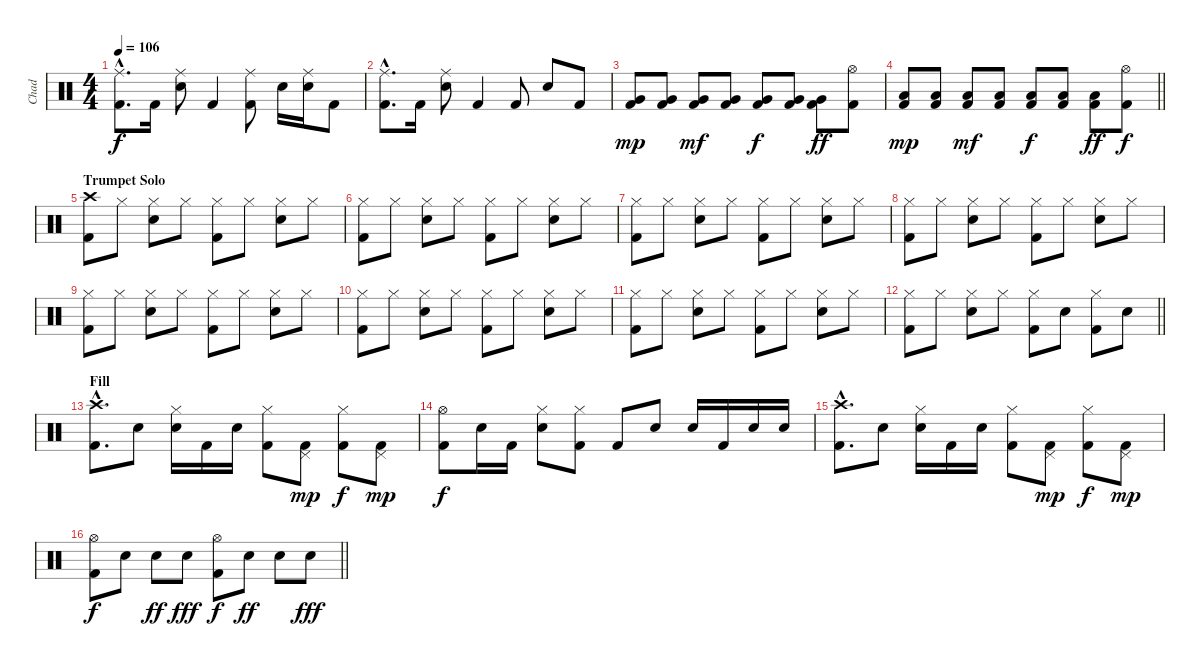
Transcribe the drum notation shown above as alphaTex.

\track ("Chad" "Chad") {instrument percussion}
\staff {score}
\articulation defaults
\ts (4 4)
\tempo 106
\clef neutral
\ks c
("Ride (middle)"{hac} "Kick (hit) 2"{hac}).8{d dy f} "Kick (hit) 2".16 ("Electric Snare (hit)" "Ride (middle)").8 "Kick (hit) 2".4 ("Ride (middle)" "Kick (hit) 2").8 "Electric Snare (hit)".16 ("Electric Snare (hit)" "Ride (middle)").16 "Kick (hit) 2".8 |
("Ride (middle)"{hac} "Kick (hit) 2"{hac}).8{d} "Kick (hit) 2".16 ("Electric Snare (hit)" "Ride (middle)").8 "Kick (hit) 2".4 "Kick (hit) 2".8 "Electric Snare (hit)".8 "Kick (hit) 2".8 |
("Very Low Tom (hit)" "Kick (hit) 2").8{dy mp} ("Very Low Tom (hit)" "Kick (hit) 2").8 ("Very Low Tom (hit)" "Kick (hit) 2").8{dy mf} ("Very Low Tom (hit)" "Kick (hit) 2").8 ("Very Low Tom (hit)" "Kick (hit) 2").8{dy f} ("Very Low Tom (hit)" "Kick (hit) 2").8 ("Very Low Tom (hit)" "Kick (hit) 2").8{dy ff} ("Hi-Hat (open)" "Kick (hit) 2").8 |
\barLineRight lightlight
("Low Tom (hit)" "Kick (hit) 2").8{dy mp} ("Low Tom (hit)" "Kick (hit) 2").8 ("Low Tom (hit)" "Kick (hit) 2").8{dy mf} ("Low Tom (hit)" "Kick (hit) 2").8 ("Low Tom (hit)" "Kick (hit) 2").8{dy f} ("Low Tom (hit)" "Kick (hit) 2").8 ("Low Tom (hit)" "Kick (hit) 2").8{dy ff} ("Hi-Hat (open)" "Kick (hit) 2").8{dy f} |
\section ("" "Trumpet Solo")
("Crash high (hit)" "Kick (hit) 2").8 "Hi-Hat (closed)".8 ("Snare (hit) 2" "Hi-Hat (closed)").8 "Hi-Hat (closed)".8 ("Hi-Hat (closed)" "Kick (hit) 2").8 "Hi-Hat (closed)".8 ("Snare (hit) 2" "Hi-Hat (closed)").8 "Hi-Hat (closed)".8 |
("Hi-Hat (closed)" "Kick (hit) 2").8 "Hi-Hat (closed)".8 ("Snare (hit) 2" "Hi-Hat (closed)").8 "Hi-Hat (closed)".8 ("Hi-Hat (closed)" "Kick (hit) 2").8 "Hi-Hat (closed)".8 ("Snare (hit) 2" "Hi-Hat (closed)").8 "Hi-Hat (closed)".8 |
("Hi-Hat (closed)" "Kick (hit) 2").8 "Hi-Hat (closed)".8 ("Snare (hit) 2" "Hi-Hat (closed)").8 "Hi-Hat (closed)".8 ("Hi-Hat (closed)" "Kick (hit) 2").8 "Hi-Hat (closed)".8 ("Snare (hit) 2" "Hi-Hat (closed)").8 "Hi-Hat (closed)".8 |
("Hi-Hat (closed)" "Kick (hit) 2").8 "Hi-Hat (closed)".8 ("Snare (hit) 2" "Hi-Hat (closed)").8 "Hi-Hat (closed)".8 ("Hi-Hat (closed)" "Kick (hit) 2").8 "Hi-Hat (closed)".8 ("Snare (hit) 2" "Hi-Hat (closed)").8 "Hi-Hat (closed)".8 |
("Hi-Hat (closed)" "Kick (hit) 2").8 "Hi-Hat (closed)".8 ("Snare (hit) 2" "Hi-Hat (closed)").8 "Hi-Hat (closed)".8 ("Hi-Hat (closed)" "Kick (hit) 2").8 "Hi-Hat (closed)".8 ("Snare (hit) 2" "Hi-Hat (closed)").8 "Hi-Hat (closed)".8 |
("Hi-Hat (closed)" "Kick (hit) 2").8 "Hi-Hat (closed)".8 ("Snare (hit) 2" "Hi-Hat (closed)").8 "Hi-Hat (closed)".8 ("Hi-Hat (closed)" "Kick (hit) 2").8 "Hi-Hat (closed)".8 ("Snare (hit) 2" "Hi-Hat (closed)").8 "Hi-Hat (closed)".8 |
("Hi-Hat (closed)" "Kick (hit) 2").8 "Hi-Hat (closed)".8 ("Snare (hit) 2" "Hi-Hat (closed)").8 "Hi-Hat (closed)".8 ("Hi-Hat (closed)" "Kick (hit) 2").8 "Hi-Hat (closed)".8 ("Snare (hit) 2" "Hi-Hat (closed)").8 "Hi-Hat (closed)".8 |
\barLineRight lightlight
("Hi-Hat (closed)" "Kick (hit) 2").8 "Hi-Hat (closed)".8 ("Snare (hit) 2" "Hi-Hat (closed)").8 "Hi-Hat (closed)".8 ("Hi-Hat (closed)" "Kick (hit) 2").8 "Electric Snare (hit)".8 ("Hi-Hat (closed)" "Kick (hit) 2").8 "Electric Snare (hit)".8 |
\section ("" "Fill")
("Crash high (hit)"{hac} "Kick (hit) 2"{hac}).8{d} "Electric Snare (hit)".8 ("Hi-Hat (closed)" "Electric Snare (hit)").16 "Kick (hit) 2".16 "Electric Snare (hit)".16 ("Hi-Hat (closed)" "Kick (hit) 2").8 ("Pedal Hi-Hat (hit)" "Kick (hit) 2").8{dy mp} ("Hi-Hat (closed)" "Kick (hit) 2").8{dy f} ("Pedal Hi-Hat (hit)" "Kick (hit) 2").8{dy mp} |
("Hi-Hat (open)" "Kick (hit) 2").8{dy f} "Electric Snare (hit)".16 "Kick (hit) 2".16 ("Hi-Hat (closed)" "Electric Snare (hit)").8 ("Hi-Hat (closed)" "Kick (hit) 2").8 "Kick (hit) 2".8 "Electric Snare (hit)".8 "Electric Snare (hit)".16 "Kick (hit) 2".16 "Electric Snare (hit)".16 "Electric Snare (hit)".16 |
("Crash high (hit)"{hac} "Kick (hit) 2"{hac}).8{d} "Electric Snare (hit)".8 ("Hi-Hat (closed)" "Electric Snare (hit)").16 "Kick (hit) 2".16 "Electric Snare (hit)".16 ("Hi-Hat (closed)" "Kick (hit) 2").8 ("Pedal Hi-Hat (hit)" "Kick (hit) 2").8{dy mp} ("Hi-Hat (closed)" "Kick (hit) 2").8{dy f} ("Pedal Hi-Hat (hit)" "Kick (hit) 2").8{dy mp} |
\barLineRight lightlight
("Hi-Hat (open)" "Kick (hit) 2").8{dy f} "Electric Snare (hit)".8 "Electric Snare (hit)".8{dy ff} "Electric Snare (hit)".8{dy fff} ("Hi-Hat (open)" "Kick (hit) 2").8{dy f} "Electric Snare (hit)".8{dy ff} "Electric Snare (hit)".8 "Electric Snare (hit)".8{dy fff}
